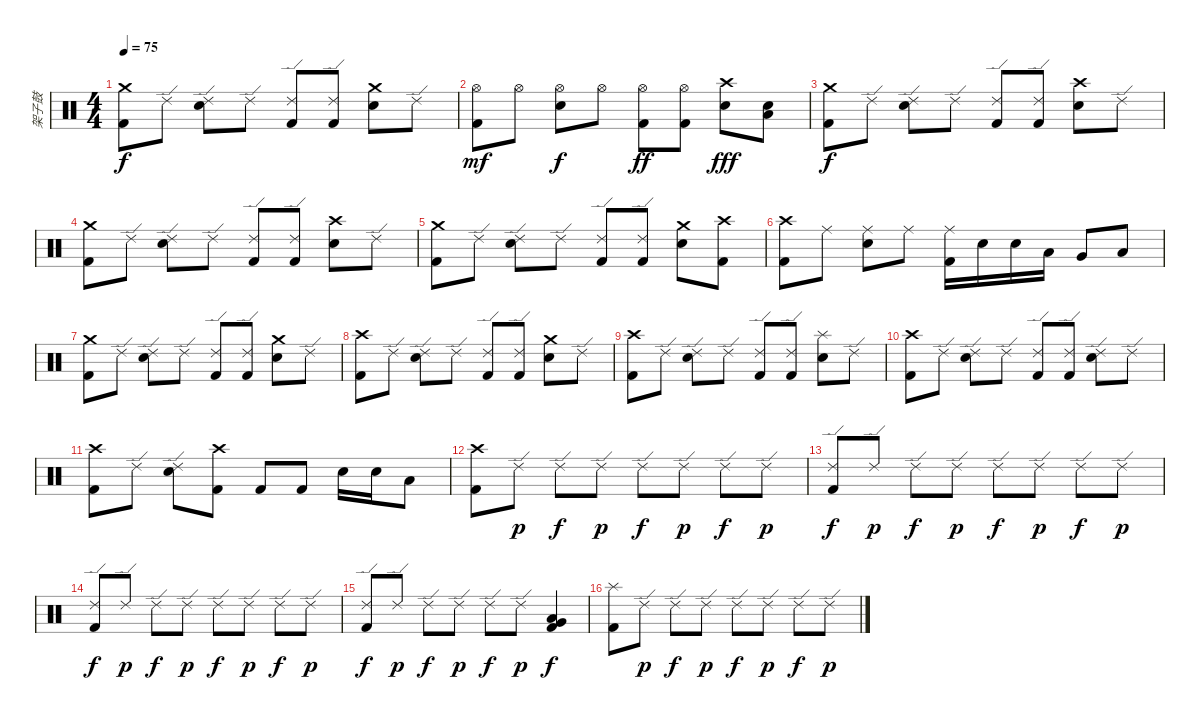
\track ("架子鼓" "架子鼓") {instrument percussion}
\staff {score}
\articulation defaults
\ts (4 4)
\tempo 75
\clef neutral
\ks c
("Crash medium (hit)" "Kick (hit) 2").8{dy f} "Ride (edge) 2".8 ("Ride (edge) 2" "Electric Snare (hit)").8 "Ride (edge) 2".8 ("Ride (edge) 2" "Kick (hit) 2").8 ("Ride (edge) 2" "Kick (hit) 2").8 ("Crash medium (hit)" "Electric Snare (hit)").8 "Ride (edge) 2".8 |
("Hi-Hat (open)" "Kick (hit) 2").8{dy mf} "Hi-Hat (open)".8 ("Hi-Hat (open)" "Electric Snare (hit)").8{dy f} "Hi-Hat (open)".8 ("Hi-Hat (open)" "Kick (hit) 2").8{dy ff} ("Hi-Hat (open)" "Kick (hit) 2").8 ("Crash high (hit)" "Electric Snare (hit)").8{dy fff} ("Low Tom (hit)" "Electric Snare (hit)").8 |
("Crash medium (hit)" "Kick (hit) 2").8{dy f} "Ride (edge) 2".8 ("Ride (edge) 2" "Electric Snare (hit)").8 "Ride (edge) 2".8 ("Ride (edge) 2" "Kick (hit) 2").8 ("Ride (edge) 2" "Kick (hit) 2").8 ("Crash high (hit)" "Electric Snare (hit)").8 "Ride (edge) 2".8 |
("Crash medium (hit)" "Kick (hit) 2").8 "Ride (edge) 2".8 ("Ride (edge) 2" "Electric Snare (hit)").8 "Ride (edge) 2".8 ("Ride (edge) 2" "Kick (hit) 2").8 ("Ride (edge) 2" "Kick (hit) 2").8 ("Crash high (hit)" "Electric Snare (hit)").8 "Ride (edge) 2".8 |
("Crash medium (hit)" "Kick (hit) 2").8 "Ride (edge) 2".8 ("Ride (edge) 2" "Electric Snare (hit)").8 "Ride (edge) 2".8 ("Ride (edge) 2" "Kick (hit) 2").8 ("Ride (edge) 2" "Kick (hit) 2").8 ("Crash medium (hit)" "Electric Snare (hit)").8 ("Crash high (hit)" "Kick (hit) 2").8 |
("Crash high (hit)" "Kick (hit) 2").8 "Ride (middle)".8 ("Ride (middle)" "Electric Snare (hit)").8 "Ride (middle)".8 ("Ride (middle)" "Kick (hit) 2").16 "Electric Snare (hit)".16 "Electric Snare (hit)".16 "Low Tom (hit)".16 "Very Low Tom (hit)".8 "Low Floor Tom (hit)".8 |
("Crash medium (hit)" "Kick (hit) 2").8 "Ride (edge) 2".8 ("Ride (edge) 2" "Electric Snare (hit)").8 "Ride (edge) 2".8 ("Ride (edge) 2" "Kick (hit) 2").8 ("Ride (edge) 2" "Kick (hit) 2").8 ("Crash medium (hit)" "Electric Snare (hit)").8 "Ride (edge) 2".8 |
("Crash high (hit)" "Kick (hit) 2").8 "Ride (edge) 2".8 ("Ride (edge) 2" "Electric Snare (hit)").8 "Ride (edge) 2".8 ("Ride (edge) 2" "Kick (hit) 2").8 ("Ride (edge) 2" "Kick (hit) 2").8 ("Crash medium (hit)" "Electric Snare (hit)").8 "Ride (edge) 2".8 |
("Crash high (hit)" "Kick (hit) 2").8 "Ride (edge) 2".8 ("Ride (edge) 2" "Electric Snare (hit)").8 "Ride (edge) 2".8 ("Ride (edge) 2" "Kick (hit) 2").8 ("Ride (edge) 2" "Kick (hit) 2").8 ("Splash (hit)" "Electric Snare (hit)").8 "Ride (edge) 2".8 |
("Crash high (hit)" "Kick (hit) 2").8 "Ride (edge) 2".8 ("Ride (edge) 2" "Electric Snare (hit)").8 "Ride (edge) 2".8 ("Ride (edge) 2" "Kick (hit) 2").8 ("Ride (edge) 2" "Kick (hit) 2").8 ("Ride (edge) 2" "Electric Snare (hit)").8 "Ride (edge) 2".8 |
("Crash high (hit)" "Kick (hit) 2").8 "Ride (edge) 2".8 ("Ride (edge) 2" "Electric Snare (hit)").8 ("Crash high (hit)" "Kick (hit) 2").8 "Kick (hit) 2".8 "Kick (hit) 2".8 "Electric Snare (hit)".16 "Electric Snare (hit)".16 "Low Tom (hit)".8 |
("Crash high (hit)" "Kick (hit) 2").8 "Ride (edge) 2".8{dy p} "Ride (edge) 2".8{dy f} "Ride (edge) 2".8{dy p} "Ride (edge) 2".8{dy f} "Ride (edge) 2".8{dy p} "Ride (edge) 2".8{dy f} "Ride (edge) 2".8{dy p} |
("Ride (edge) 2" "Kick (hit) 2").8{dy f} "Ride (edge) 2".8{dy p} "Ride (edge) 2".8{dy f} "Ride (edge) 2".8{dy p} "Ride (edge) 2".8{dy f} "Ride (edge) 2".8{dy p} "Ride (edge) 2".8{dy f} "Ride (edge) 2".8{dy p} |
("Ride (edge) 2" "Kick (hit) 2").8{dy f} "Ride (edge) 2".8{dy p} "Ride (edge) 2".8{dy f} "Ride (edge) 2".8{dy p} "Ride (edge) 2".8{dy f} "Ride (edge) 2".8{dy p} "Ride (edge) 2".8{dy f} "Ride (edge) 2".8{dy p} |
("Ride (edge) 2" "Kick (hit) 2").8{dy f} "Ride (edge) 2".8{dy p} "Ride (edge) 2".8{dy f} "Ride (edge) 2".8{dy p} "Ride (edge) 2".8{dy f} "Ride (edge) 2".8{dy p} ("Low Tom (hit)" "Very Low Tom (hit)" "Kick (hit) 2").4{dy f} |
("Splash (hit)" "Kick (hit) 2").8 "Ride (edge) 2".8{dy p} "Ride (edge) 2".8{dy f} "Ride (edge) 2".8{dy p} "Ride (edge) 2".8{dy f} "Ride (edge) 2".8{dy p} "Ride (edge) 2".8{dy f} "Ride (edge) 2".8{dy p}
